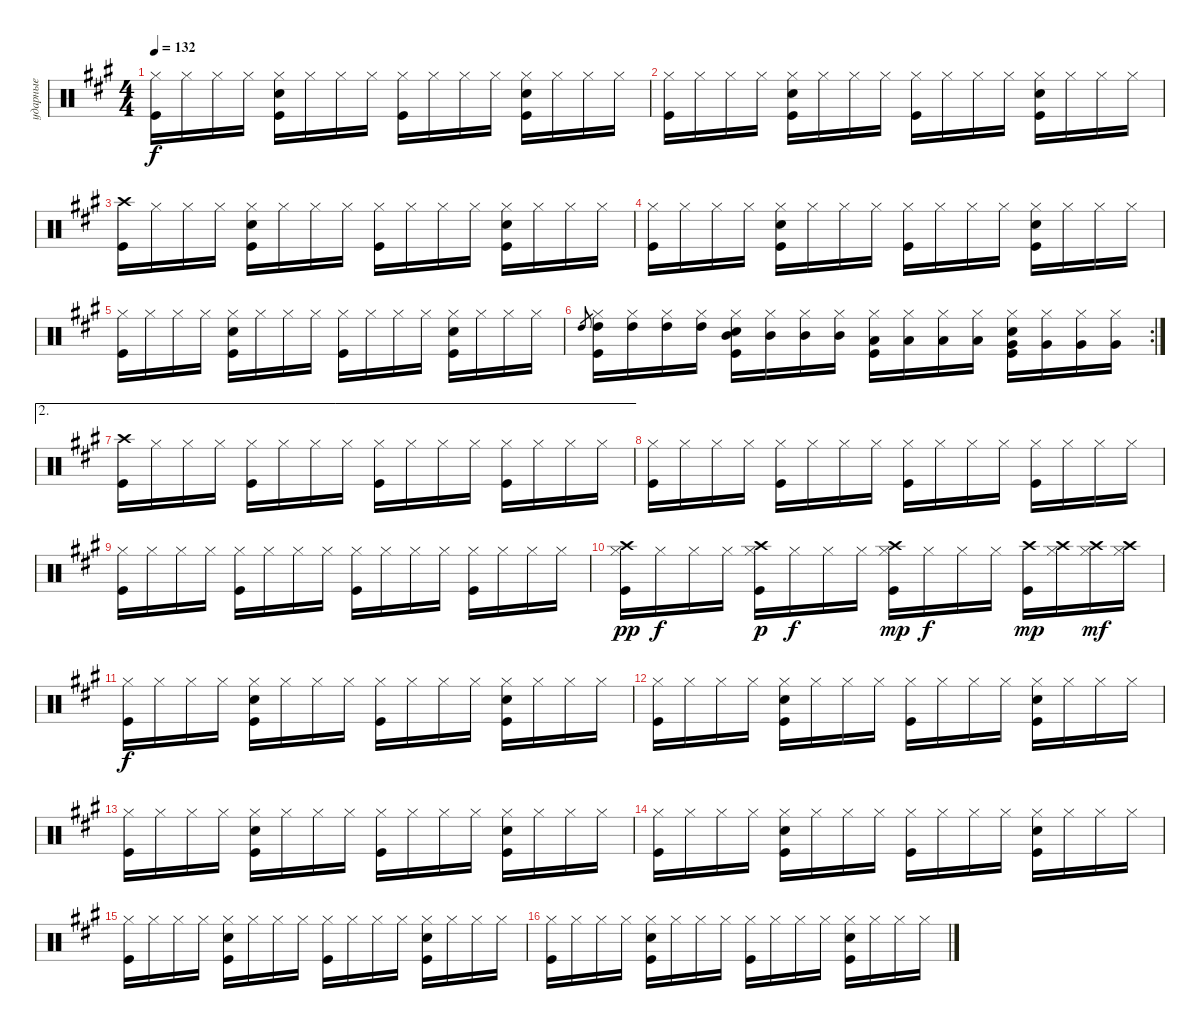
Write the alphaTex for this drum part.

\track ("ударные" "ударные") {instrument percussion}
\staff {score}
\articulation defaults
\ts (4 4)
\tempo 132
\clef neutral
\ks f#minor
("Hi-Hat (closed)" "Kick (hit)").16{dy f} "Hi-Hat (closed)".16 "Hi-Hat (closed)".16 "Hi-Hat (closed)".16 ("Hi-Hat (closed)" "Snare (hit) 2" "Kick (hit)").16 "Hi-Hat (closed)".16 "Hi-Hat (closed)".16 "Hi-Hat (closed)".16 ("Hi-Hat (closed)" "Kick (hit)").16 "Hi-Hat (closed)".16 "Hi-Hat (closed)".16 "Hi-Hat (closed)".16 ("Hi-Hat (closed)" "Snare (hit) 2" "Kick (hit)").16 "Hi-Hat (closed)".16 "Hi-Hat (closed)".16 "Hi-Hat (closed)".16 |
("Hi-Hat (closed)" "Kick (hit)").16 "Hi-Hat (closed)".16 "Hi-Hat (closed)".16 "Hi-Hat (closed)".16 ("Hi-Hat (closed)" "Snare (hit) 2" "Kick (hit)").16 "Hi-Hat (closed)".16 "Hi-Hat (closed)".16 "Hi-Hat (closed)".16 ("Hi-Hat (closed)" "Kick (hit)").16 "Hi-Hat (closed)".16 "Hi-Hat (closed)".16 "Hi-Hat (closed)".16 ("Hi-Hat (closed)" "Snare (hit) 2" "Kick (hit)").16 "Hi-Hat (closed)".16 "Hi-Hat (closed)".16 "Hi-Hat (closed)".16 |
("Kick (hit)" "Crash high (hit)").16 "Hi-Hat (closed)".16 "Hi-Hat (closed)".16 "Hi-Hat (closed)".16 ("Hi-Hat (closed)" "Snare (hit) 2" "Kick (hit)").16 "Hi-Hat (closed)".16 "Hi-Hat (closed)".16 "Hi-Hat (closed)".16 ("Hi-Hat (closed)" "Kick (hit)").16 "Hi-Hat (closed)".16 "Hi-Hat (closed)".16 "Hi-Hat (closed)".16 ("Hi-Hat (closed)" "Snare (hit) 2" "Kick (hit)").16 "Hi-Hat (closed)".16 "Hi-Hat (closed)".16 "Hi-Hat (closed)".16 |
("Hi-Hat (closed)" "Kick (hit)").16 "Hi-Hat (closed)".16 "Hi-Hat (closed)".16 "Hi-Hat (closed)".16 ("Hi-Hat (closed)" "Snare (hit) 2" "Kick (hit)").16 "Hi-Hat (closed)".16 "Hi-Hat (closed)".16 "Hi-Hat (closed)".16 ("Hi-Hat (closed)" "Kick (hit)").16 "Hi-Hat (closed)".16 "Hi-Hat (closed)".16 "Hi-Hat (closed)".16 ("Hi-Hat (closed)" "Snare (hit) 2" "Kick (hit)").16 "Hi-Hat (closed)".16 "Hi-Hat (closed)".16 "Hi-Hat (closed)".16 |
("Hi-Hat (closed)" "Kick (hit)").16 "Hi-Hat (closed)".16 "Hi-Hat (closed)".16 "Hi-Hat (closed)".16 ("Hi-Hat (closed)" "Snare (hit) 2" "Kick (hit)").16 "Hi-Hat (closed)".16 "Hi-Hat (closed)".16 "Hi-Hat (closed)".16 ("Hi-Hat (closed)" "Kick (hit)").16 "Hi-Hat (closed)".16 "Hi-Hat (closed)".16 "Hi-Hat (closed)".16 ("Hi-Hat (closed)" "Snare (hit) 2" "Kick (hit)").16 "Hi-Hat (closed)".16 "Hi-Hat (closed)".16 "Hi-Hat (closed)".16 |
\rc 2 "High Tom (hit)".8{gr}
("Hi-Hat (closed)" "Kick (hit)" "High Tom (hit)").16 ("Hi-Hat (closed)" "High Tom (hit)").16 ("Hi-Hat (closed)" "High Tom (hit)").16 ("Hi-Hat (closed)" "High Tom (hit)").16 ("Hi-Hat (closed)" "Snare (hit) 2" "Kick (hit)" "Mid Tom (hit)").16 ("Hi-Hat (closed)" "Mid Tom (hit)").16 ("Hi-Hat (closed)" "Mid Tom (hit)").16 ("Hi-Hat (closed)" "Mid Tom (hit)").16 ("Hi-Hat (closed)" "Kick (hit)" "Low Tom (hit)").16 ("Hi-Hat (closed)" "Low Tom (hit)").16 ("Hi-Hat (closed)" "Low Tom (hit)").16 ("Hi-Hat (closed)" "Low Tom (hit)").16 ("Hi-Hat (closed)" "Snare (hit) 2" "Kick (hit)" "Very Low Tom (hit)").16 ("Hi-Hat (closed)" "Very Low Tom (hit)").16 ("Hi-Hat (closed)" "Very Low Tom (hit)").16 ("Hi-Hat (closed)" "Very Low Tom (hit)").16 |
\ae 2
("Kick (hit)" "Crash high (hit)").16 "Hi-Hat (closed)".16 "Hi-Hat (closed)".16 "Hi-Hat (closed)".16 ("Kick (hit)" "Hi-Hat (closed)").16 "Hi-Hat (closed)".16 "Hi-Hat (closed)".16 "Hi-Hat (closed)".16 ("Hi-Hat (closed)" "Kick (hit)").16 "Hi-Hat (closed)".16 "Hi-Hat (closed)".16 "Hi-Hat (closed)".16 ("Kick (hit)" "Hi-Hat (closed)").16 "Hi-Hat (closed)".16 "Hi-Hat (closed)".16 "Hi-Hat (closed)".16 |
("Hi-Hat (closed)" "Kick (hit)").16 "Hi-Hat (closed)".16 "Hi-Hat (closed)".16 "Hi-Hat (closed)".16 ("Kick (hit)" "Hi-Hat (closed)").16 "Hi-Hat (closed)".16 "Hi-Hat (closed)".16 "Hi-Hat (closed)".16 ("Hi-Hat (closed)" "Kick (hit)").16 "Hi-Hat (closed)".16 "Hi-Hat (closed)".16 "Hi-Hat (closed)".16 ("Kick (hit)" "Hi-Hat (closed)").16 "Hi-Hat (closed)".16 "Hi-Hat (closed)".16 "Hi-Hat (closed)".16 |
("Hi-Hat (closed)" "Kick (hit)").16 "Hi-Hat (closed)".16 "Hi-Hat (closed)".16 "Hi-Hat (closed)".16 ("Kick (hit)" "Hi-Hat (closed)").16 "Hi-Hat (closed)".16 "Hi-Hat (closed)".16 "Hi-Hat (closed)".16 ("Hi-Hat (closed)" "Kick (hit)").16 "Hi-Hat (closed)".16 "Hi-Hat (closed)".16 "Hi-Hat (closed)".16 ("Kick (hit)" "Hi-Hat (closed)").16 "Hi-Hat (closed)".16 "Hi-Hat (closed)".16 "Hi-Hat (closed)".16 |
("Kick (hit)" "Crash high (hit)" "Hi-Hat (closed)").16{dy pp} "Hi-Hat (closed)".16{dy f} "Hi-Hat (closed)".16 "Hi-Hat (closed)".16 ("Kick (hit)" "Crash high (hit)" "Hi-Hat (closed)").16{dy p} "Hi-Hat (closed)".16{dy f} "Hi-Hat (closed)".16 "Hi-Hat (closed)".16 ("Kick (hit)" "Crash high (hit)" "Hi-Hat (closed)").16{dy mp} "Hi-Hat (closed)".16{dy f} "Hi-Hat (closed)".16 "Hi-Hat (closed)".16 ("Kick (hit)" "Crash high (hit)").16{dy mp} ("Hi-Hat (closed)" "Crash high (hit)").16 ("Hi-Hat (closed)" "Crash high (hit)").16{dy mf} ("Hi-Hat (closed)" "Crash high (hit)").16 |
("Kick (hit)" "Hi-Hat (closed)").16{dy f} "Hi-Hat (closed)".16 "Hi-Hat (closed)".16 "Hi-Hat (closed)".16 ("Hi-Hat (closed)" "Snare (hit) 2" "Kick (hit)").16 "Hi-Hat (closed)".16 "Hi-Hat (closed)".16 "Hi-Hat (closed)".16 ("Hi-Hat (closed)" "Kick (hit)").16 "Hi-Hat (closed)".16 "Hi-Hat (closed)".16 "Hi-Hat (closed)".16 ("Hi-Hat (closed)" "Snare (hit) 2" "Kick (hit)").16 "Hi-Hat (closed)".16 "Hi-Hat (closed)".16 "Hi-Hat (closed)".16 |
("Hi-Hat (closed)" "Kick (hit)").16 "Hi-Hat (closed)".16 "Hi-Hat (closed)".16 "Hi-Hat (closed)".16 ("Hi-Hat (closed)" "Snare (hit) 2" "Kick (hit)").16 "Hi-Hat (closed)".16 "Hi-Hat (closed)".16 "Hi-Hat (closed)".16 ("Hi-Hat (closed)" "Kick (hit)").16 "Hi-Hat (closed)".16 "Hi-Hat (closed)".16 "Hi-Hat (closed)".16 ("Hi-Hat (closed)" "Snare (hit) 2" "Kick (hit)").16 "Hi-Hat (closed)".16 "Hi-Hat (closed)".16 "Hi-Hat (closed)".16 |
("Hi-Hat (closed)" "Kick (hit)").16 "Hi-Hat (closed)".16 "Hi-Hat (closed)".16 "Hi-Hat (closed)".16 ("Hi-Hat (closed)" "Snare (hit) 2" "Kick (hit)").16 "Hi-Hat (closed)".16 "Hi-Hat (closed)".16 "Hi-Hat (closed)".16 ("Hi-Hat (closed)" "Kick (hit)").16 "Hi-Hat (closed)".16 "Hi-Hat (closed)".16 "Hi-Hat (closed)".16 ("Hi-Hat (closed)" "Snare (hit) 2" "Kick (hit)").16 "Hi-Hat (closed)".16 "Hi-Hat (closed)".16 "Hi-Hat (closed)".16 |
("Hi-Hat (closed)" "Kick (hit)").16 "Hi-Hat (closed)".16 "Hi-Hat (closed)".16 "Hi-Hat (closed)".16 ("Hi-Hat (closed)" "Snare (hit) 2" "Kick (hit)").16 "Hi-Hat (closed)".16 "Hi-Hat (closed)".16 "Hi-Hat (closed)".16 ("Hi-Hat (closed)" "Kick (hit)").16 "Hi-Hat (closed)".16 "Hi-Hat (closed)".16 "Hi-Hat (closed)".16 ("Hi-Hat (closed)" "Snare (hit) 2" "Kick (hit)").16 "Hi-Hat (closed)".16 "Hi-Hat (closed)".16 "Hi-Hat (closed)".16 |
("Hi-Hat (closed)" "Kick (hit)").16 "Hi-Hat (closed)".16 "Hi-Hat (closed)".16 "Hi-Hat (closed)".16 ("Hi-Hat (closed)" "Snare (hit) 2" "Kick (hit)").16 "Hi-Hat (closed)".16 "Hi-Hat (closed)".16 "Hi-Hat (closed)".16 ("Hi-Hat (closed)" "Kick (hit)").16 "Hi-Hat (closed)".16 "Hi-Hat (closed)".16 "Hi-Hat (closed)".16 ("Hi-Hat (closed)" "Snare (hit) 2" "Kick (hit)").16 "Hi-Hat (closed)".16 "Hi-Hat (closed)".16 "Hi-Hat (closed)".16 |
("Hi-Hat (closed)" "Kick (hit)").16 "Hi-Hat (closed)".16 "Hi-Hat (closed)".16 "Hi-Hat (closed)".16 ("Hi-Hat (closed)" "Snare (hit) 2" "Kick (hit)").16 "Hi-Hat (closed)".16 "Hi-Hat (closed)".16 "Hi-Hat (closed)".16 ("Hi-Hat (closed)" "Kick (hit)").16 "Hi-Hat (closed)".16 "Hi-Hat (closed)".16 "Hi-Hat (closed)".16 ("Hi-Hat (closed)" "Snare (hit) 2" "Kick (hit)").16 "Hi-Hat (closed)".16 "Hi-Hat (closed)".16 "Hi-Hat (closed)".16
